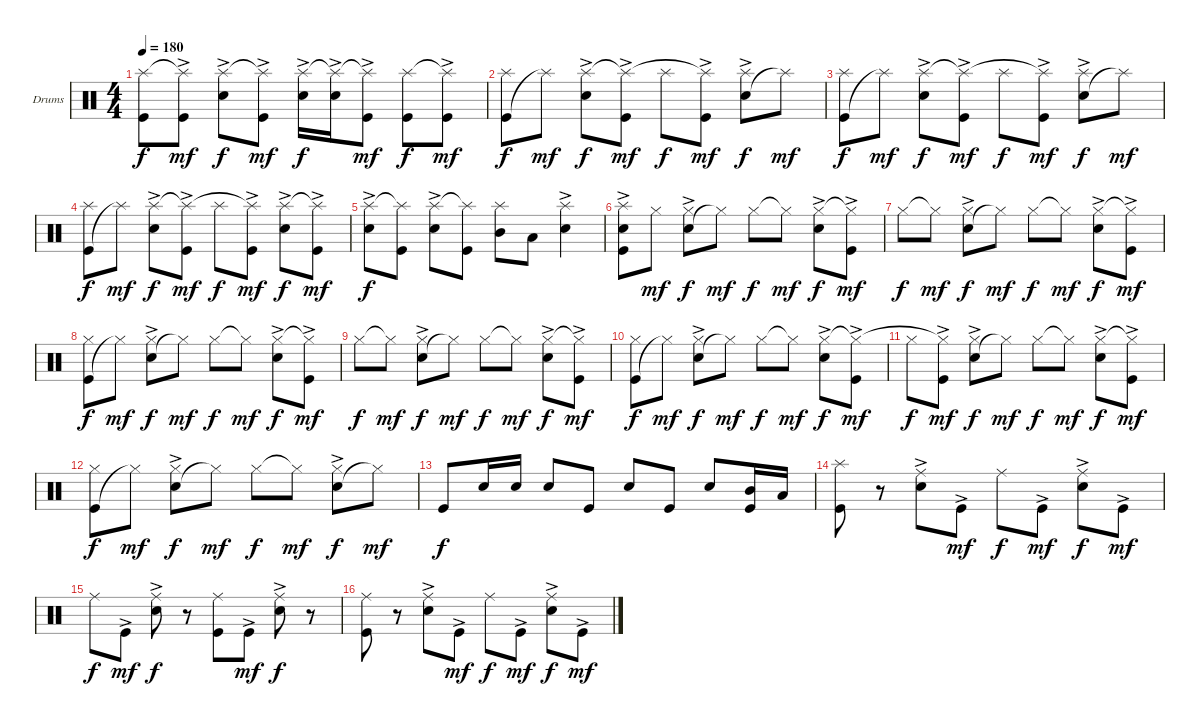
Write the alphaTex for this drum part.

\defaultSystemsLayout 4
\bracketExtendMode groupsimilarinstruments
\firstSystemTrackNameOrientation horizontal
\otherSystemsTrackNameOrientation horizontal
\track ("Drumkit" "Drums") {instrument percussion}
\staff {score}
\articulation defaults
\ts (4 4)
\tempo 180
\clef neutral
\ks c
("Kick (hit)" "Splash (hit)").8{dy f} ("Kick (hit)"{ac} "Splash (hit)"{t}).8{dy mf} ("Snare (hit) 2"{ac} "Splash (hit)").8{dy f} ("Kick (hit)"{ac} "Splash (hit)"{t}).8{dy mf} ("Snare (hit) 2"{ac} "Splash (hit)").16{dy f} ("Snare (hit) 2"{ac} "Splash (hit)"{t}).16 ("Kick (hit)"{ac} "Splash (hit)"{t}).8{dy mf} ("Kick (hit)" "Splash (hit)").8{dy f} ("Kick (hit)"{ac} "Splash (hit)"{t}).8{dy mf} |
("Kick (hit)" "Splash (hit)").8{dy f} "Splash (hit)"{t}.8{dy mf} ("Snare (hit) 2"{ac} "Splash (hit)").8{dy f} ("Kick (hit)"{ac} "Splash (hit)"{t}).8{dy mf} "Splash (hit)".8{dy f} ("Kick (hit)"{ac} "Splash (hit)"{t}).8{dy mf} ("Snare (hit) 2"{ac} "Splash (hit)").8{dy f} "Splash (hit)"{t}.8{dy mf} |
("Kick (hit)" "Splash (hit)").8{dy f} "Splash (hit)"{t}.8{dy mf} ("Snare (hit) 2"{ac} "Splash (hit)").8{dy f} ("Kick (hit)"{ac} "Splash (hit)"{t}).8{dy mf} "Splash (hit)".8{dy f} ("Kick (hit)"{ac} "Splash (hit)"{t}).8{dy mf} ("Snare (hit) 2"{ac} "Splash (hit)").8{dy f} "Splash (hit)"{t}.8{dy mf} |
("Kick (hit)" "Splash (hit)").8{dy f} "Splash (hit)"{t}.8{dy mf} ("Snare (hit) 2"{ac} "Splash (hit)").8{dy f} ("Kick (hit)"{ac} "Splash (hit)"{t}).8{dy mf} "Splash (hit)".8{dy f} ("Kick (hit)"{ac} "Splash (hit)"{t}).8{dy mf} ("Snare (hit) 2"{ac} "Splash (hit)").8{dy f} ("Kick (hit)"{ac} "Splash (hit)"{t}).8{dy mf} |
("Snare (hit) 2"{ac} "Splash (hit)").8{dy f} ("Kick (hit)" "Splash (hit)"{t}).8 ("Snare (hit) 2"{ac} "Splash (hit)").8 ("Kick (hit)" "Splash (hit)"{t}).8 ("Mid Tom (hit)" "Splash (hit)").8 "Low Tom (hit)".8 ("Snare (hit) 2"{ac} "Splash (hit)").4 |
("Snare (hit) 2"{ac} "Kick (hit)" "Splash (hit)").8 "Hi-Hat (closed)".8{dy mf} ("Snare (hit) 2"{ac} "Hi-Hat (closed)").8{dy f} "Hi-Hat (closed)"{t}.8{dy mf} "Hi-Hat (closed)".8{dy f} "Hi-Hat (closed)"{t}.8{dy mf} ("Snare (hit) 2"{ac} "Hi-Hat (closed)").8{dy f} ("Kick (hit)"{ac} "Hi-Hat (closed)"{t}).8{dy mf} |
"Hi-Hat (closed)".8{dy f} "Hi-Hat (closed)"{t}.8{dy mf} ("Snare (hit) 2"{ac} "Hi-Hat (closed)").8{dy f} "Hi-Hat (closed)"{t}.8{dy mf} "Hi-Hat (closed)".8{dy f} "Hi-Hat (closed)"{t}.8{dy mf} ("Snare (hit) 2"{ac} "Hi-Hat (closed)").8{dy f} ("Kick (hit)"{ac} "Hi-Hat (closed)"{t}).8{dy mf} |
("Kick (hit)" "Hi-Hat (closed)").8{dy f} "Hi-Hat (closed)"{t}.8{dy mf} ("Snare (hit) 2"{ac} "Hi-Hat (closed)").8{dy f} "Hi-Hat (closed)"{t}.8{dy mf} "Hi-Hat (closed)".8{dy f} "Hi-Hat (closed)"{t}.8{dy mf} ("Snare (hit) 2"{ac} "Hi-Hat (closed)").8{dy f} ("Kick (hit)"{ac} "Hi-Hat (closed)"{t}).8{dy mf} |
"Hi-Hat (closed)".8{dy f} "Hi-Hat (closed)"{t}.8{dy mf} ("Snare (hit) 2"{ac} "Hi-Hat (closed)").8{dy f} "Hi-Hat (closed)"{t}.8{dy mf} "Hi-Hat (closed)".8{dy f} "Hi-Hat (closed)"{t}.8{dy mf} ("Snare (hit) 2"{ac} "Hi-Hat (closed)").8{dy f} ("Kick (hit)"{ac} "Hi-Hat (closed)"{t}).8{dy mf} |
("Kick (hit)" "Hi-Hat (closed)").8{dy f} "Hi-Hat (closed)"{t}.8{dy mf} ("Snare (hit) 2"{ac} "Hi-Hat (closed)").8{dy f} "Hi-Hat (closed)"{t}.8{dy mf} "Hi-Hat (closed)".8{dy f} "Hi-Hat (closed)"{t}.8{dy mf} ("Snare (hit) 2"{ac} "Hi-Hat (closed)").8{dy f} ("Kick (hit)"{ac} "Hi-Hat (closed)"{t}).8{dy mf} |
"Hi-Hat (closed)".8{dy f} ("Kick (hit)"{ac} "Hi-Hat (closed)"{t}).8{dy mf} ("Snare (hit) 2"{ac} "Hi-Hat (closed)").8{dy f} "Hi-Hat (closed)"{t}.8{dy mf} "Hi-Hat (closed)".8{dy f} "Hi-Hat (closed)"{t}.8{dy mf} ("Snare (hit) 2"{ac} "Hi-Hat (closed)").8{dy f} ("Kick (hit)"{ac} "Hi-Hat (closed)"{t}).8{dy mf} |
("Kick (hit)" "Hi-Hat (closed)").8{dy f} "Hi-Hat (closed)"{t}.8{dy mf} ("Snare (hit) 2"{ac} "Hi-Hat (closed)").8{dy f} "Hi-Hat (closed)"{t}.8{dy mf} "Hi-Hat (closed)".8{dy f} "Hi-Hat (closed)"{t}.8{dy mf} ("Snare (hit) 2"{ac} "Hi-Hat (closed)").8{dy f} "Hi-Hat (closed)"{t}.8{dy mf} |
"Kick (hit)".8{dy f} "Snare (hit) 2".16 "Snare (hit) 2".16 "Snare (hit) 2".8 "Kick (hit)".8 "Snare (hit) 2".8 "Kick (hit)".8 "Snare (hit) 2".8 ("Mid Tom (hit)" "Kick (hit)").16 "Low Tom (hit)".16 |
("Kick (hit)" "Splash (hit)").8 r.8 ("Snare (hit) 2"{ac} "Ride (middle)").8 "Kick (hit)"{ac}.8{dy mf} "Ride (middle)".8{dy f} "Kick (hit)"{ac}.8{dy mf} ("Snare (hit) 2"{ac} "Ride (middle)").8{dy f} "Kick (hit)"{ac}.8{dy mf} |
"Ride (middle)".8{dy f} "Kick (hit)"{ac}.8{dy mf} ("Snare (hit) 2"{ac} "Ride (middle)").8{dy f} r.8 ("Kick (hit)" "Ride (middle)").8 "Kick (hit)"{ac}.8{dy mf} ("Snare (hit) 2"{ac} "Ride (middle)").8{dy f} r.8 |
("Kick (hit)" "Ride (middle)").8 r.8 ("Snare (hit) 2"{ac} "Ride (middle)").8 "Kick (hit)"{ac}.8{dy mf} "Ride (middle)".8{dy f} "Kick (hit)"{ac}.8{dy mf} ("Snare (hit) 2"{ac} "Ride (middle)").8{dy f} "Kick (hit)"{ac}.8{dy mf}
